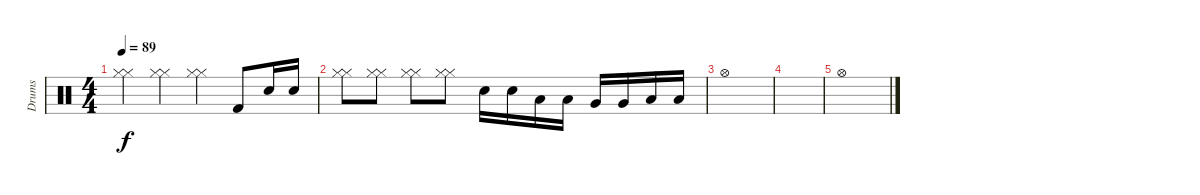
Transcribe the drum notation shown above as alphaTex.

\track ("Drums" "Drums") {instrument percussion}
\staff {score}
\articulation defaults
\ts (4 4)
\tempo 89
\clef neutral
\ks c
("Hi-Hat (closed)" "Hi-Hat (closed)").4{dy f} ("Hi-Hat (closed)" "Hi-Hat (closed)").4 ("Hi-Hat (closed)" "Hi-Hat (closed)").4 "Kick (hit) 2".8 "Electric Snare (hit)".16 "Electric Snare (hit)".16 |
("Hi-Hat (closed)" "Hi-Hat (closed)").8 ("Hi-Hat (closed)" "Hi-Hat (closed)").8 ("Hi-Hat (closed)" "Hi-Hat (closed)").8 ("Hi-Hat (closed)" "Hi-Hat (closed)").8 "Electric Snare (hit)".16 "Electric Snare (hit)".16 "Low Tom (hit)".16 "Low Tom (hit)".16 "Very Low Tom (hit)".16 "Very Low Tom (hit)".16 "Low Floor Tom (hit)".16 "Low Floor Tom (hit)".16 |
"Hi-Hat (open)".1 |
|
"Hi-Hat (open)".1
